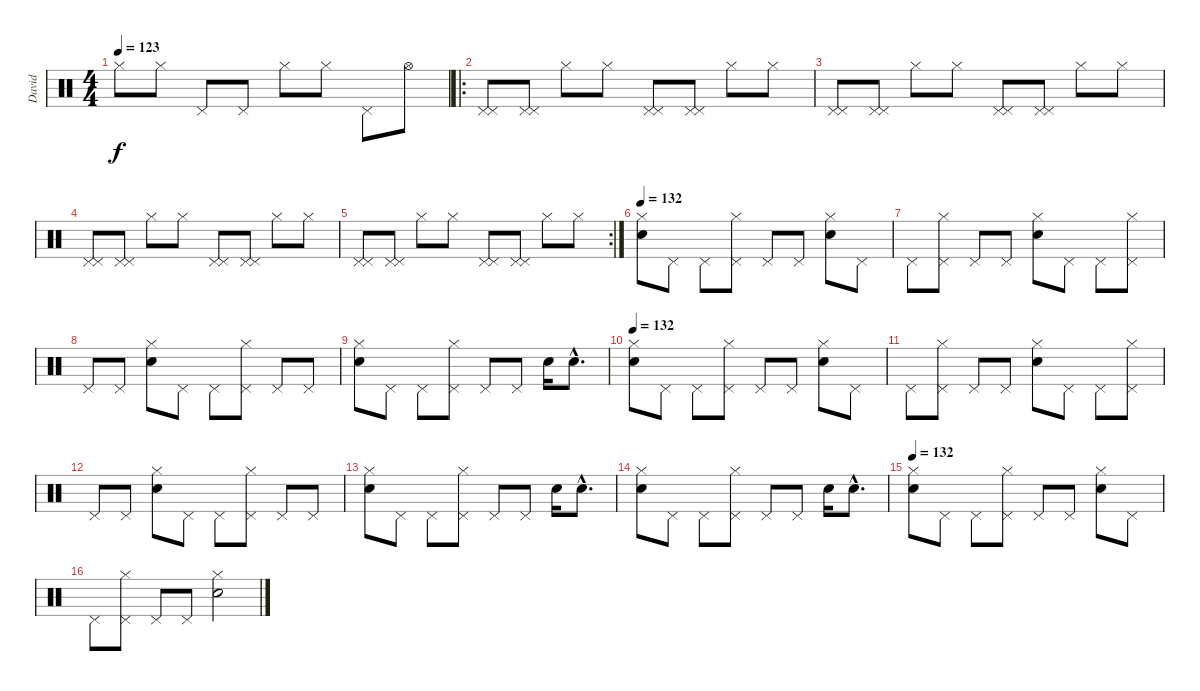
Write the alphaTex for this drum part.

\track ("David" "David") {instrument percussion}
\staff {score}
\articulation defaults
\ts (4 4)
\tempo 123
\clef neutral
\ks c "Hi-Hat (closed)".8{dy f} "Hi-Hat (closed)".8 "Pedal Hi-Hat (hit)".8 "Pedal Hi-Hat (hit)".8 "Hi-Hat (closed)".8 "Hi-Hat (closed)".8 "Pedal Hi-Hat (hit)".8 "Hi-Hat (open)".8
|
\ro
("Pedal Hi-Hat (hit)" "Pedal Hi-Hat (hit)").8 ("Pedal Hi-Hat (hit)" "Pedal Hi-Hat (hit)").8 "Hi-Hat (closed)".8 "Hi-Hat (closed)".8 ("Pedal Hi-Hat (hit)" "Pedal Hi-Hat (hit)").8 ("Pedal Hi-Hat (hit)" "Pedal Hi-Hat (hit)").8 "Hi-Hat (closed)".8 "Hi-Hat (closed)".8 |
("Pedal Hi-Hat (hit)" "Pedal Hi-Hat (hit)").8 ("Pedal Hi-Hat (hit)" "Pedal Hi-Hat (hit)").8 "Hi-Hat (closed)".8 "Hi-Hat (closed)".8 ("Pedal Hi-Hat (hit)" "Pedal Hi-Hat (hit)").8 ("Pedal Hi-Hat (hit)" "Pedal Hi-Hat (hit)").8 "Hi-Hat (closed)".8 "Hi-Hat (closed)".8 |
("Pedal Hi-Hat (hit)" "Pedal Hi-Hat (hit)").8 ("Pedal Hi-Hat (hit)" "Pedal Hi-Hat (hit)").8 "Hi-Hat (closed)".8 "Hi-Hat (closed)".8 ("Pedal Hi-Hat (hit)" "Pedal Hi-Hat (hit)").8 ("Pedal Hi-Hat (hit)" "Pedal Hi-Hat (hit)").8 "Hi-Hat (closed)".8 "Hi-Hat (closed)".8 |
\rc 2
("Pedal Hi-Hat (hit)" "Pedal Hi-Hat (hit)").8 ("Pedal Hi-Hat (hit)" "Pedal Hi-Hat (hit)").8 "Hi-Hat (closed)".8 "Hi-Hat (closed)".8 ("Pedal Hi-Hat (hit)" "Pedal Hi-Hat (hit)").8 ("Pedal Hi-Hat (hit)" "Pedal Hi-Hat (hit)").8 "Hi-Hat (closed)".8 "Hi-Hat (closed)".8 |
\tempo 132
("Hi-Hat (closed)" "Electric Snare (hit)").8 "Pedal Hi-Hat (hit)".8 "Pedal Hi-Hat (hit)".8 ("Hi-Hat (closed)" "Pedal Hi-Hat (hit)").8 "Pedal Hi-Hat (hit)".8 "Pedal Hi-Hat (hit)".8 ("Hi-Hat (closed)" "Electric Snare (hit)").8 "Pedal Hi-Hat (hit)".8 |
"Pedal Hi-Hat (hit)".8 ("Hi-Hat (closed)" "Pedal Hi-Hat (hit)").8 "Pedal Hi-Hat (hit)".8 "Pedal Hi-Hat (hit)".8 ("Hi-Hat (closed)" "Electric Snare (hit)").8 "Pedal Hi-Hat (hit)".8 "Pedal Hi-Hat (hit)".8 ("Hi-Hat (closed)" "Pedal Hi-Hat (hit)").8 |
"Pedal Hi-Hat (hit)".8 "Pedal Hi-Hat (hit)".8 ("Hi-Hat (closed)" "Electric Snare (hit)").8 "Pedal Hi-Hat (hit)".8 "Pedal Hi-Hat (hit)".8 ("Hi-Hat (closed)" "Pedal Hi-Hat (hit)").8 "Pedal Hi-Hat (hit)".8 "Pedal Hi-Hat (hit)".8 |
("Hi-Hat (closed)" "Electric Snare (hit)").8 "Pedal Hi-Hat (hit)".8 "Pedal Hi-Hat (hit)".8 ("Hi-Hat (closed)" "Pedal Hi-Hat (hit)").8 "Pedal Hi-Hat (hit)".8 "Pedal Hi-Hat (hit)".8 "Snare (hit) 2".16 "Snare (hit) 2"{hac}.8{d} |
\tempo 132
("Hi-Hat (closed)" "Electric Snare (hit)").8 "Pedal Hi-Hat (hit)".8 "Pedal Hi-Hat (hit)".8 ("Hi-Hat (closed)" "Pedal Hi-Hat (hit)").8 "Pedal Hi-Hat (hit)".8 "Pedal Hi-Hat (hit)".8 ("Hi-Hat (closed)" "Electric Snare (hit)").8 "Pedal Hi-Hat (hit)".8 |
"Pedal Hi-Hat (hit)".8 ("Hi-Hat (closed)" "Pedal Hi-Hat (hit)").8 "Pedal Hi-Hat (hit)".8 "Pedal Hi-Hat (hit)".8 ("Hi-Hat (closed)" "Electric Snare (hit)").8 "Pedal Hi-Hat (hit)".8 "Pedal Hi-Hat (hit)".8 ("Hi-Hat (closed)" "Pedal Hi-Hat (hit)").8 |
"Pedal Hi-Hat (hit)".8 "Pedal Hi-Hat (hit)".8 ("Hi-Hat (closed)" "Electric Snare (hit)").8 "Pedal Hi-Hat (hit)".8 "Pedal Hi-Hat (hit)".8 ("Hi-Hat (closed)" "Pedal Hi-Hat (hit)").8 "Pedal Hi-Hat (hit)".8 "Pedal Hi-Hat (hit)".8 |
("Hi-Hat (closed)" "Electric Snare (hit)").8 "Pedal Hi-Hat (hit)".8 "Pedal Hi-Hat (hit)".8 ("Hi-Hat (closed)" "Pedal Hi-Hat (hit)").8 "Pedal Hi-Hat (hit)".8 "Pedal Hi-Hat (hit)".8 "Snare (hit) 2".16 "Snare (hit) 2"{hac}.8{d} |
("Hi-Hat (closed)" "Electric Snare (hit)").8 "Pedal Hi-Hat (hit)".8 "Pedal Hi-Hat (hit)".8 ("Hi-Hat (closed)" "Pedal Hi-Hat (hit)").8 "Pedal Hi-Hat (hit)".8 "Pedal Hi-Hat (hit)".8 "Snare (hit) 2".16 "Snare (hit) 2"{hac}.8{d} |
\tempo 132
("Hi-Hat (closed)" "Electric Snare (hit)").8 "Pedal Hi-Hat (hit)".8 "Pedal Hi-Hat (hit)".8 ("Hi-Hat (closed)" "Pedal Hi-Hat (hit)").8 "Pedal Hi-Hat (hit)".8 "Pedal Hi-Hat (hit)".8 ("Hi-Hat (closed)" "Electric Snare (hit)").8 "Pedal Hi-Hat (hit)".8 |
"Pedal Hi-Hat (hit)".8 ("Hi-Hat (closed)" "Pedal Hi-Hat (hit)").8 "Pedal Hi-Hat (hit)".8 "Pedal Hi-Hat (hit)".8 ("Hi-Hat (closed)" "Electric Snare (hit)").2
